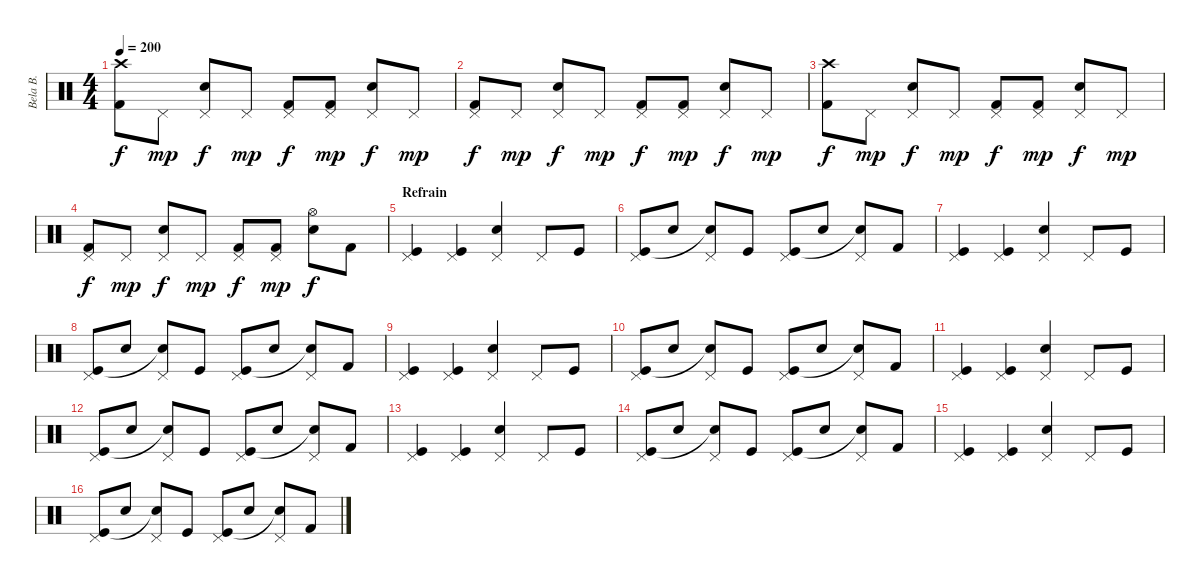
\track ("Bela B. " "Bela B. ") {instrument percussion}
\staff {score}
\articulation defaults
\ts (4 4)
\tempo 200
\clef neutral
\ks c
("Crash high (hit)" "Kick (hit) 2").8{dy f} "Pedal Hi-Hat (hit)".8{dy mp} ("Pedal Hi-Hat (hit)" "Snare (hit) 2").8{dy f} "Pedal Hi-Hat (hit)".8{dy mp} ("Pedal Hi-Hat (hit)" "Kick (hit) 2").8{dy f} ("Pedal Hi-Hat (hit)" "Kick (hit) 2").8{dy mp} ("Pedal Hi-Hat (hit)" "Snare (hit) 2").8{dy f} "Pedal Hi-Hat (hit)".8{dy mp} |
("Pedal Hi-Hat (hit)" "Kick (hit) 2").8{dy f} "Pedal Hi-Hat (hit)".8{dy mp} ("Pedal Hi-Hat (hit)" "Snare (hit) 2").8{dy f} "Pedal Hi-Hat (hit)".8{dy mp} ("Pedal Hi-Hat (hit)" "Kick (hit) 2").8{dy f} ("Pedal Hi-Hat (hit)" "Kick (hit) 2").8{dy mp} ("Pedal Hi-Hat (hit)" "Snare (hit) 2").8{dy f} "Pedal Hi-Hat (hit)".8{dy mp} |
("Crash high (hit)" "Kick (hit) 2").8{dy f} "Pedal Hi-Hat (hit)".8{dy mp} ("Pedal Hi-Hat (hit)" "Snare (hit) 2").8{dy f} "Pedal Hi-Hat (hit)".8{dy mp} ("Pedal Hi-Hat (hit)" "Kick (hit) 2").8{dy f} ("Pedal Hi-Hat (hit)" "Kick (hit) 2").8{dy mp} ("Pedal Hi-Hat (hit)" "Snare (hit) 2").8{dy f} "Pedal Hi-Hat (hit)".8{dy mp} |
("Pedal Hi-Hat (hit)" "Kick (hit) 2").8{dy f} "Pedal Hi-Hat (hit)".8{dy mp} ("Pedal Hi-Hat (hit)" "Snare (hit) 2").8{dy f} "Pedal Hi-Hat (hit)".8{dy mp} ("Pedal Hi-Hat (hit)" "Kick (hit) 2").8{dy f} ("Pedal Hi-Hat (hit)" "Kick (hit) 2").8{dy mp} ("Hi-Hat (open)" "Snare (hit) 2").8{dy f} "Kick (hit) 2".8 |
\section ("" "Refrain")
("Pedal Hi-Hat (hit)" "Kick (hit)").4 ("Pedal Hi-Hat (hit)" "Kick (hit)").4 ("Pedal Hi-Hat (hit)" "Snare (hit) 2").4 "Pedal Hi-Hat (hit)".8 "Kick (hit)".8 |
("Pedal Hi-Hat (hit)" "Kick (hit)").8 "Snare (hit) 2".8 ("Pedal Hi-Hat (hit)" "Electric Snare (hit)"{t}).8 "Kick (hit)".8 ("Pedal Hi-Hat (hit)" "Kick (hit)").8 "Snare (hit) 2".8 ("Pedal Hi-Hat (hit)" "Electric Snare (hit)"{t}).8 "Kick (hit) 2".8 |
("Pedal Hi-Hat (hit)" "Kick (hit)").4 ("Pedal Hi-Hat (hit)" "Kick (hit)").4 ("Pedal Hi-Hat (hit)" "Snare (hit) 2").4 "Pedal Hi-Hat (hit)".8 "Kick (hit)".8 |
("Pedal Hi-Hat (hit)" "Kick (hit)").8 "Snare (hit) 2".8 ("Pedal Hi-Hat (hit)" "Electric Snare (hit)"{t}).8 "Kick (hit)".8 ("Pedal Hi-Hat (hit)" "Kick (hit)").8 "Snare (hit) 2".8 ("Pedal Hi-Hat (hit)" "Electric Snare (hit)"{t}).8 "Kick (hit) 2".8 |
("Pedal Hi-Hat (hit)" "Kick (hit)").4 ("Pedal Hi-Hat (hit)" "Kick (hit)").4 ("Pedal Hi-Hat (hit)" "Snare (hit) 2").4 "Pedal Hi-Hat (hit)".8 "Kick (hit)".8 |
("Pedal Hi-Hat (hit)" "Kick (hit)").8 "Snare (hit) 2".8 ("Pedal Hi-Hat (hit)" "Electric Snare (hit)"{t}).8 "Kick (hit)".8 ("Pedal Hi-Hat (hit)" "Kick (hit)").8 "Snare (hit) 2".8 ("Pedal Hi-Hat (hit)" "Electric Snare (hit)"{t}).8 "Kick (hit) 2".8 |
("Pedal Hi-Hat (hit)" "Kick (hit)").4 ("Pedal Hi-Hat (hit)" "Kick (hit)").4 ("Pedal Hi-Hat (hit)" "Snare (hit) 2").4 "Pedal Hi-Hat (hit)".8 "Kick (hit)".8 |
("Pedal Hi-Hat (hit)" "Kick (hit)").8 "Snare (hit) 2".8 ("Pedal Hi-Hat (hit)" "Electric Snare (hit)"{t}).8 "Kick (hit)".8 ("Pedal Hi-Hat (hit)" "Kick (hit)").8 "Snare (hit) 2".8 ("Pedal Hi-Hat (hit)" "Electric Snare (hit)"{t}).8 "Kick (hit) 2".8 |
("Pedal Hi-Hat (hit)" "Kick (hit)").4 ("Pedal Hi-Hat (hit)" "Kick (hit)").4 ("Pedal Hi-Hat (hit)" "Snare (hit) 2").4 "Pedal Hi-Hat (hit)".8 "Kick (hit)".8 |
("Pedal Hi-Hat (hit)" "Kick (hit)").8 "Snare (hit) 2".8 ("Pedal Hi-Hat (hit)" "Electric Snare (hit)"{t}).8 "Kick (hit)".8 ("Pedal Hi-Hat (hit)" "Kick (hit)").8 "Snare (hit) 2".8 ("Pedal Hi-Hat (hit)" "Electric Snare (hit)"{t}).8 "Kick (hit) 2".8 |
("Pedal Hi-Hat (hit)" "Kick (hit)").4 ("Pedal Hi-Hat (hit)" "Kick (hit)").4 ("Pedal Hi-Hat (hit)" "Snare (hit) 2").4 "Pedal Hi-Hat (hit)".8 "Kick (hit)".8 |
("Pedal Hi-Hat (hit)" "Kick (hit)").8 "Snare (hit) 2".8 ("Pedal Hi-Hat (hit)" "Electric Snare (hit)"{t}).8 "Kick (hit)".8 ("Pedal Hi-Hat (hit)" "Kick (hit)").8 "Snare (hit) 2".8 ("Pedal Hi-Hat (hit)" "Electric Snare (hit)"{t}).8 "Kick (hit) 2".8
